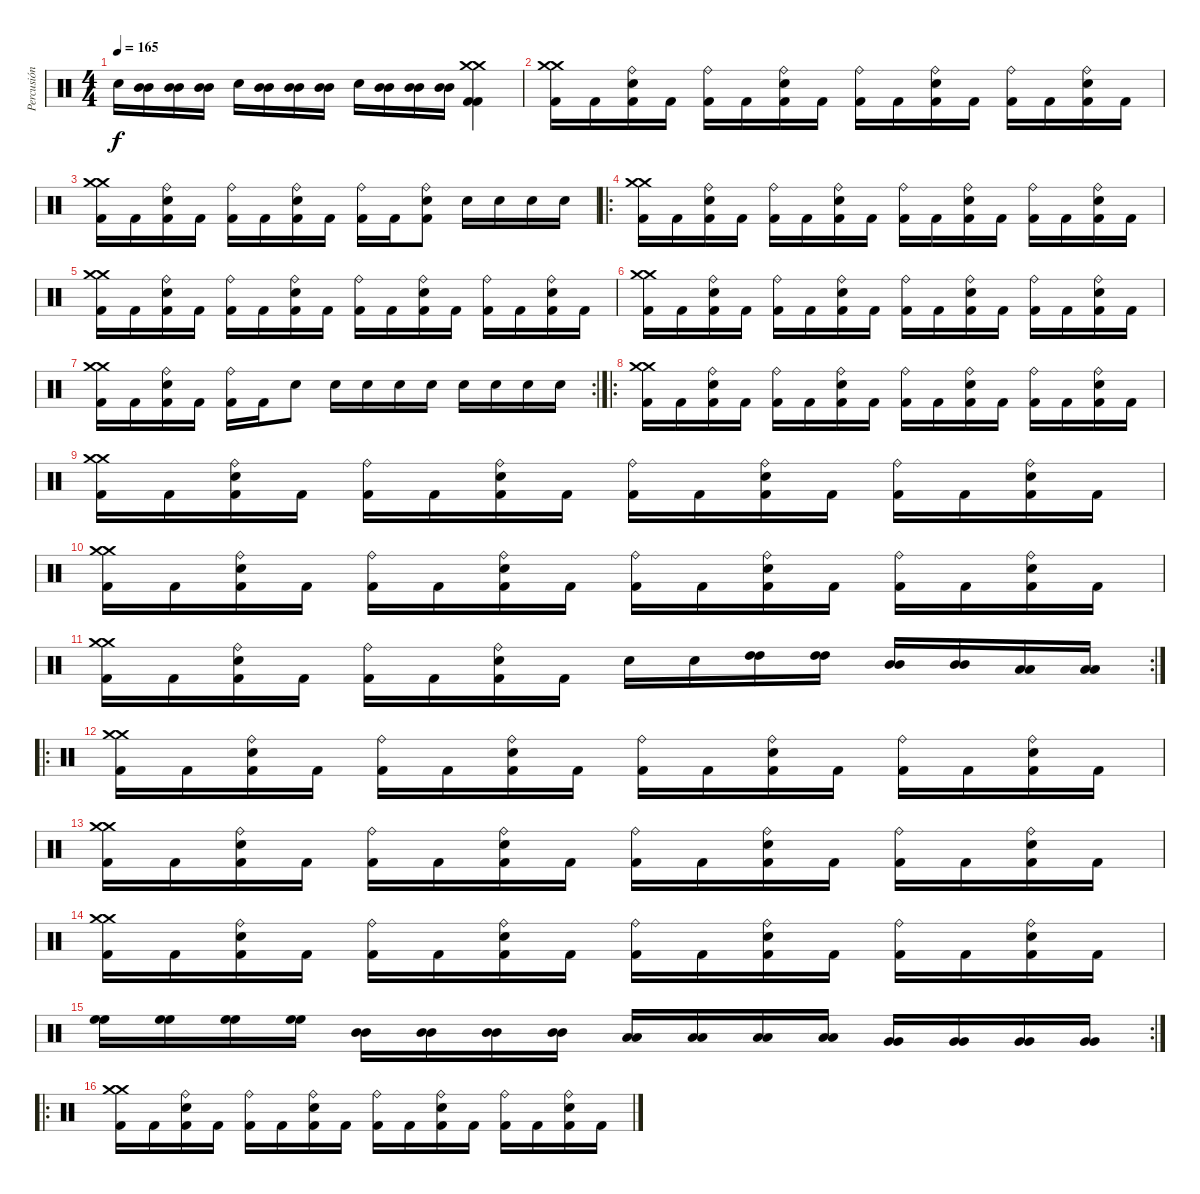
\track ("Percusión" "Percusión") {instrument percussion}
\staff {score}
\articulation defaults
\ts (4 4)
\tempo 165
\clef neutral
\ks c "Snare (hit) 2".16{dy f}
("Mid Tom (hit)" "Mid Tom (hit)").16 ("Mid Tom (hit)" "Mid Tom (hit)").16 ("Mid Tom (hit)" "Mid Tom (hit)").16 "Snare (hit) 2".16 ("Mid Tom (hit)" "Mid Tom (hit)").16 ("Mid Tom (hit)" "Mid Tom (hit)").16 ("Mid Tom (hit)" "Mid Tom (hit)").16 "Snare (hit) 2".16 ("Mid Tom (hit)" "Mid Tom (hit)").16 ("Mid Tom (hit)" "Mid Tom (hit)").16 ("Mid Tom (hit)" "Mid Tom (hit)").16 ("Crash medium (hit)" "Crash medium (hit)" "Kick (hit) 2" "Kick (hit) 2").4 |
("Crash medium (hit)" "Crash medium (hit)" "Kick (hit) 2").16 "Kick (hit) 2".16 ("Ride (bell)" "Snare (hit) 2" "Kick (hit) 2").16 "Kick (hit) 2".16 ("Ride (bell)" "Kick (hit) 2").16 "Kick (hit) 2".16 ("Ride (bell)" "Snare (hit) 2" "Kick (hit) 2").16 "Kick (hit) 2".16 ("Ride (bell)" "Kick (hit) 2").16 "Kick (hit) 2".16 ("Ride (bell)" "Snare (hit) 2" "Kick (hit) 2").16 "Kick (hit) 2".16 ("Ride (bell)" "Kick (hit) 2").16 "Kick (hit) 2".16 ("Ride (bell)" "Snare (hit) 2" "Kick (hit) 2").16 "Kick (hit) 2".16 |
("Crash medium (hit)" "Crash medium (hit)" "Kick (hit) 2").16 "Kick (hit) 2".16 ("Ride (bell)" "Snare (hit) 2" "Kick (hit) 2").16 "Kick (hit) 2".16 ("Ride (bell)" "Kick (hit) 2").16 "Kick (hit) 2".16 ("Ride (bell)" "Snare (hit) 2" "Kick (hit) 2").16 "Kick (hit) 2".16 ("Ride (bell)" "Kick (hit) 2").16 "Kick (hit) 2".16 ("Ride (bell)" "Snare (hit) 2" "Kick (hit) 2").8 "Snare (hit) 2".16 "Snare (hit) 2".16 "Snare (hit) 2".16 "Snare (hit) 2".16 |
\ro
("Crash medium (hit)" "Crash medium (hit)" "Kick (hit) 2").16 "Kick (hit) 2".16 ("Ride (bell)" "Snare (hit) 2" "Kick (hit) 2").16 "Kick (hit) 2".16 ("Ride (bell)" "Kick (hit) 2").16 "Kick (hit) 2".16 ("Ride (bell)" "Snare (hit) 2" "Kick (hit) 2").16 "Kick (hit) 2".16 ("Ride (bell)" "Kick (hit) 2").16 "Kick (hit) 2".16 ("Ride (bell)" "Snare (hit) 2" "Kick (hit) 2").16 "Kick (hit) 2".16 ("Ride (bell)" "Kick (hit) 2").16 "Kick (hit) 2".16 ("Ride (bell)" "Snare (hit) 2" "Kick (hit) 2").16 "Kick (hit) 2".16 |
("Crash medium (hit)" "Crash medium (hit)" "Kick (hit) 2").16 "Kick (hit) 2".16 ("Ride (bell)" "Snare (hit) 2" "Kick (hit) 2").16 "Kick (hit) 2".16 ("Ride (bell)" "Kick (hit) 2").16 "Kick (hit) 2".16 ("Ride (bell)" "Snare (hit) 2" "Kick (hit) 2").16 "Kick (hit) 2".16 ("Ride (bell)" "Kick (hit) 2").16 "Kick (hit) 2".16 ("Ride (bell)" "Snare (hit) 2" "Kick (hit) 2").16 "Kick (hit) 2".16 ("Ride (bell)" "Kick (hit) 2").16 "Kick (hit) 2".16 ("Ride (bell)" "Snare (hit) 2" "Kick (hit) 2").16 "Kick (hit) 2".16 |
("Crash medium (hit)" "Crash medium (hit)" "Kick (hit) 2").16 "Kick (hit) 2".16 ("Ride (bell)" "Snare (hit) 2" "Kick (hit) 2").16 "Kick (hit) 2".16 ("Ride (bell)" "Kick (hit) 2").16 "Kick (hit) 2".16 ("Ride (bell)" "Snare (hit) 2" "Kick (hit) 2").16 "Kick (hit) 2".16 ("Ride (bell)" "Kick (hit) 2").16 "Kick (hit) 2".16 ("Ride (bell)" "Snare (hit) 2" "Kick (hit) 2").16 "Kick (hit) 2".16 ("Ride (bell)" "Kick (hit) 2").16 "Kick (hit) 2".16 ("Ride (bell)" "Snare (hit) 2" "Kick (hit) 2").16 "Kick (hit) 2".16 |
\rc 2
("Crash medium (hit)" "Crash medium (hit)" "Kick (hit) 2").16 "Kick (hit) 2".16 ("Ride (bell)" "Snare (hit) 2" "Kick (hit) 2").16 "Kick (hit) 2".16 ("Ride (bell)" "Kick (hit) 2").16 "Kick (hit) 2".16 "Snare (hit) 2".8 "Snare (hit) 2".16 "Snare (hit) 2".16 "Snare (hit) 2".16 "Snare (hit) 2".16 "Snare (hit) 2".16 "Snare (hit) 2".16 "Snare (hit) 2".16 "Snare (hit) 2".16 |
\ro
("Crash medium (hit)" "Crash medium (hit)" "Kick (hit) 2").16 "Kick (hit) 2".16 ("Ride (bell)" "Snare (hit) 2" "Kick (hit) 2").16 "Kick (hit) 2".16 ("Ride (bell)" "Kick (hit) 2").16 "Kick (hit) 2".16 ("Ride (bell)" "Snare (hit) 2" "Kick (hit) 2").16 "Kick (hit) 2".16 ("Ride (bell)" "Kick (hit) 2").16 "Kick (hit) 2".16 ("Ride (bell)" "Snare (hit) 2" "Kick (hit) 2").16 "Kick (hit) 2".16 ("Ride (bell)" "Kick (hit) 2").16 "Kick (hit) 2".16 ("Ride (bell)" "Snare (hit) 2" "Kick (hit) 2").16 "Kick (hit) 2".16 |
("Crash medium (hit)" "Crash medium (hit)" "Kick (hit) 2").16 "Kick (hit) 2".16 ("Ride (bell)" "Snare (hit) 2" "Kick (hit) 2").16 "Kick (hit) 2".16 ("Ride (bell)" "Kick (hit) 2").16 "Kick (hit) 2".16 ("Ride (bell)" "Snare (hit) 2" "Kick (hit) 2").16 "Kick (hit) 2".16 ("Ride (bell)" "Kick (hit) 2").16 "Kick (hit) 2".16 ("Ride (bell)" "Snare (hit) 2" "Kick (hit) 2").16 "Kick (hit) 2".16 ("Ride (bell)" "Kick (hit) 2").16 "Kick (hit) 2".16 ("Ride (bell)" "Snare (hit) 2" "Kick (hit) 2").16 "Kick (hit) 2".16 |
("Crash medium (hit)" "Crash medium (hit)" "Kick (hit) 2").16 "Kick (hit) 2".16 ("Ride (bell)" "Snare (hit) 2" "Kick (hit) 2").16 "Kick (hit) 2".16 ("Ride (bell)" "Kick (hit) 2").16 "Kick (hit) 2".16 ("Ride (bell)" "Snare (hit) 2" "Kick (hit) 2").16 "Kick (hit) 2".16 ("Ride (bell)" "Kick (hit) 2").16 "Kick (hit) 2".16 ("Ride (bell)" "Snare (hit) 2" "Kick (hit) 2").16 "Kick (hit) 2".16 ("Ride (bell)" "Kick (hit) 2").16 "Kick (hit) 2".16 ("Ride (bell)" "Snare (hit) 2" "Kick (hit) 2").16 "Kick (hit) 2".16 |
\rc 2
("Crash medium (hit)" "Crash medium (hit)" "Kick (hit) 2").16 "Kick (hit) 2".16 ("Ride (bell)" "Snare (hit) 2" "Kick (hit) 2").16 "Kick (hit) 2".16 ("Ride (bell)" "Kick (hit) 2").16 "Kick (hit) 2".16 ("Ride (bell)" "Snare (hit) 2" "Kick (hit) 2").16 "Kick (hit) 2".16 "Snare (hit) 2".16 "Snare (hit) 2".16 ("High Tom (hit)" "High Tom (hit)").16 ("High Tom (hit)" "High Tom (hit)").16 ("Mid Tom (hit)" "Mid Tom (hit)").16 ("Mid Tom (hit)" "Mid Tom (hit)").16 ("Low Tom (hit)" "Low Tom (hit)").16 ("Low Tom (hit)" "Low Tom (hit)").16 |
\ro
("Crash medium (hit)" "Crash medium (hit)" "Kick (hit) 2").16 "Kick (hit) 2".16 ("Ride (bell)" "Snare (hit) 2" "Kick (hit) 2").16 "Kick (hit) 2".16 ("Ride (bell)" "Kick (hit) 2").16 "Kick (hit) 2".16 ("Ride (bell)" "Snare (hit) 2" "Kick (hit) 2").16 "Kick (hit) 2".16 ("Ride (bell)" "Kick (hit) 2").16 "Kick (hit) 2".16 ("Ride (bell)" "Snare (hit) 2" "Kick (hit) 2").16 "Kick (hit) 2".16 ("Ride (bell)" "Kick (hit) 2").16 "Kick (hit) 2".16 ("Ride (bell)" "Snare (hit) 2" "Kick (hit) 2").16 "Kick (hit) 2".16 |
("Crash medium (hit)" "Crash medium (hit)" "Kick (hit) 2").16 "Kick (hit) 2".16 ("Ride (bell)" "Snare (hit) 2" "Kick (hit) 2").16 "Kick (hit) 2".16 ("Ride (bell)" "Kick (hit) 2").16 "Kick (hit) 2".16 ("Ride (bell)" "Snare (hit) 2" "Kick (hit) 2").16 "Kick (hit) 2".16 ("Ride (bell)" "Kick (hit) 2").16 "Kick (hit) 2".16 ("Ride (bell)" "Snare (hit) 2" "Kick (hit) 2").16 "Kick (hit) 2".16 ("Ride (bell)" "Kick (hit) 2").16 "Kick (hit) 2".16 ("Ride (bell)" "Snare (hit) 2" "Kick (hit) 2").16 "Kick (hit) 2".16 |
("Crash medium (hit)" "Crash medium (hit)" "Kick (hit) 2").16 "Kick (hit) 2".16 ("Ride (bell)" "Snare (hit) 2" "Kick (hit) 2").16 "Kick (hit) 2".16 ("Ride (bell)" "Kick (hit) 2").16 "Kick (hit) 2".16 ("Ride (bell)" "Snare (hit) 2" "Kick (hit) 2").16 "Kick (hit) 2".16 ("Ride (bell)" "Kick (hit) 2").16 "Kick (hit) 2".16 ("Ride (bell)" "Snare (hit) 2" "Kick (hit) 2").16 "Kick (hit) 2".16 ("Ride (bell)" "Kick (hit) 2").16 "Kick (hit) 2".16 ("Ride (bell)" "Snare (hit) 2" "Kick (hit) 2").16 "Kick (hit) 2".16 |
\rc 2
("High Floor Tom (hit)" "High Floor Tom (hit)").16 ("High Floor Tom (hit)" "High Floor Tom (hit)").16 ("High Floor Tom (hit)" "High Floor Tom (hit)").16 ("High Floor Tom (hit)" "High Floor Tom (hit)").16 ("Mid Tom (hit)" "Mid Tom (hit)").16 ("Mid Tom (hit)" "Mid Tom (hit)").16 ("Mid Tom (hit)" "Mid Tom (hit)").16 ("Mid Tom (hit)" "Mid Tom (hit)").16 ("Low Tom (hit)" "Low Tom (hit)").16 ("Low Tom (hit)" "Low Tom (hit)").16 ("Low Tom (hit)" "Low Tom (hit)").16 ("Low Tom (hit)" "Low Tom (hit)").16 ("Very Low Tom (hit)" "Very Low Tom (hit)").16 ("Very Low Tom (hit)" "Very Low Tom (hit)").16 ("Very Low Tom (hit)" "Very Low Tom (hit)").16 ("Very Low Tom (hit)" "Very Low Tom (hit)").16 |
\ro
("Crash medium (hit)" "Crash medium (hit)" "Kick (hit) 2").16 "Kick (hit) 2".16 ("Ride (bell)" "Snare (hit) 2" "Kick (hit) 2").16 "Kick (hit) 2".16 ("Ride (bell)" "Kick (hit) 2").16 "Kick (hit) 2".16 ("Ride (bell)" "Snare (hit) 2" "Kick (hit) 2").16 "Kick (hit) 2".16 ("Ride (bell)" "Kick (hit) 2").16 "Kick (hit) 2".16 ("Ride (bell)" "Snare (hit) 2" "Kick (hit) 2").16 "Kick (hit) 2".16 ("Ride (bell)" "Kick (hit) 2").16 "Kick (hit) 2".16 ("Ride (bell)" "Snare (hit) 2" "Kick (hit) 2").16 "Kick (hit) 2".16
